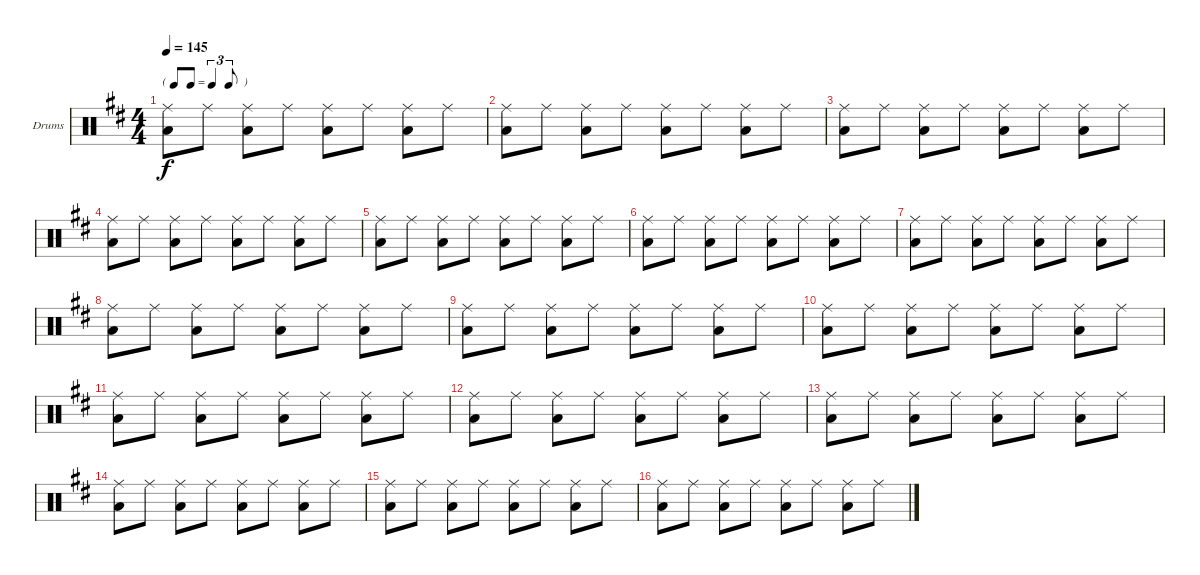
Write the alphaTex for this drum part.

\bracketExtendMode groupsimilarinstruments
\firstSystemTrackNameOrientation horizontal
\otherSystemsTrackNameOrientation horizontal
\track ("Drumkit" "Drums") {mute instrument percussion}
\staff {score}
\articulation defaults
\ts (4 4)
\tf triplet8th
\tempo 145
\clef neutral
\ks d
("Low Tom (hit)" "Ride (middle)").8{dy f} "Ride (middle)".8 ("Low Tom (hit)" "Ride (middle)").8 "Ride (middle)".8 ("Low Tom (hit)" "Ride (middle)").8 "Ride (middle)".8 ("Low Tom (hit)" "Ride (middle)").8 "Ride (middle)".8 |
("Low Tom (hit)" "Ride (middle)").8 "Ride (middle)".8 ("Low Tom (hit)" "Ride (middle)").8 "Ride (middle)".8 ("Low Tom (hit)" "Ride (middle)").8 "Ride (middle)".8 ("Low Tom (hit)" "Ride (middle)").8 "Ride (middle)".8 |
("Low Tom (hit)" "Ride (middle)").8 "Ride (middle)".8 ("Low Tom (hit)" "Ride (middle)").8 "Ride (middle)".8 ("Low Tom (hit)" "Ride (middle)").8 "Ride (middle)".8 ("Low Tom (hit)" "Ride (middle)").8 "Ride (middle)".8 |
("Low Tom (hit)" "Ride (middle)").8 "Ride (middle)".8 ("Low Tom (hit)" "Ride (middle)").8 "Ride (middle)".8 ("Low Tom (hit)" "Ride (middle)").8 "Ride (middle)".8 ("Low Tom (hit)" "Ride (middle)").8 "Ride (middle)".8 |
("Low Tom (hit)" "Ride (middle)").8 "Ride (middle)".8 ("Low Tom (hit)" "Ride (middle)").8 "Ride (middle)".8 ("Low Tom (hit)" "Ride (middle)").8 "Ride (middle)".8 ("Low Tom (hit)" "Ride (middle)").8 "Ride (middle)".8 |
("Low Tom (hit)" "Ride (middle)").8 "Ride (middle)".8 ("Low Tom (hit)" "Ride (middle)").8 "Ride (middle)".8 ("Low Tom (hit)" "Ride (middle)").8 "Ride (middle)".8 ("Low Tom (hit)" "Ride (middle)").8 "Ride (middle)".8 |
("Low Tom (hit)" "Ride (middle)").8 "Ride (middle)".8 ("Low Tom (hit)" "Ride (middle)").8 "Ride (middle)".8 ("Low Tom (hit)" "Ride (middle)").8 "Ride (middle)".8 ("Low Tom (hit)" "Ride (middle)").8 "Ride (middle)".8 |
("Low Tom (hit)" "Ride (middle)").8 "Ride (middle)".8 ("Low Tom (hit)" "Ride (middle)").8 "Ride (middle)".8 ("Low Tom (hit)" "Ride (middle)").8 "Ride (middle)".8 ("Low Tom (hit)" "Ride (middle)").8 "Ride (middle)".8 |
("Low Tom (hit)" "Ride (middle)").8 "Ride (middle)".8 ("Low Tom (hit)" "Ride (middle)").8 "Ride (middle)".8 ("Low Tom (hit)" "Ride (middle)").8 "Ride (middle)".8 ("Low Tom (hit)" "Ride (middle)").8 "Ride (middle)".8 |
("Low Tom (hit)" "Ride (middle)").8 "Ride (middle)".8 ("Low Tom (hit)" "Ride (middle)").8 "Ride (middle)".8 ("Low Tom (hit)" "Ride (middle)").8 "Ride (middle)".8 ("Low Tom (hit)" "Ride (middle)").8 "Ride (middle)".8 |
("Low Tom (hit)" "Ride (middle)").8 "Ride (middle)".8 ("Low Tom (hit)" "Ride (middle)").8 "Ride (middle)".8 ("Low Tom (hit)" "Ride (middle)").8 "Ride (middle)".8 ("Low Tom (hit)" "Ride (middle)").8 "Ride (middle)".8 |
("Low Tom (hit)" "Ride (middle)").8 "Ride (middle)".8 ("Low Tom (hit)" "Ride (middle)").8 "Ride (middle)".8 ("Low Tom (hit)" "Ride (middle)").8 "Ride (middle)".8 ("Low Tom (hit)" "Ride (middle)").8 "Ride (middle)".8 |
("Low Tom (hit)" "Ride (middle)").8 "Ride (middle)".8 ("Low Tom (hit)" "Ride (middle)").8 "Ride (middle)".8 ("Low Tom (hit)" "Ride (middle)").8 "Ride (middle)".8 ("Low Tom (hit)" "Ride (middle)").8 "Ride (middle)".8 |
("Low Tom (hit)" "Ride (middle)").8 "Ride (middle)".8 ("Low Tom (hit)" "Ride (middle)").8 "Ride (middle)".8 ("Low Tom (hit)" "Ride (middle)").8 "Ride (middle)".8 ("Low Tom (hit)" "Ride (middle)").8 "Ride (middle)".8 |
("Low Tom (hit)" "Ride (middle)").8 "Ride (middle)".8 ("Low Tom (hit)" "Ride (middle)").8 "Ride (middle)".8 ("Low Tom (hit)" "Ride (middle)").8 "Ride (middle)".8 ("Low Tom (hit)" "Ride (middle)").8 "Ride (middle)".8 |
("Low Tom (hit)" "Ride (middle)").8 "Ride (middle)".8 ("Low Tom (hit)" "Ride (middle)").8 "Ride (middle)".8 ("Low Tom (hit)" "Ride (middle)").8 "Ride (middle)".8 ("Low Tom (hit)" "Ride (middle)").8 "Ride (middle)".8
